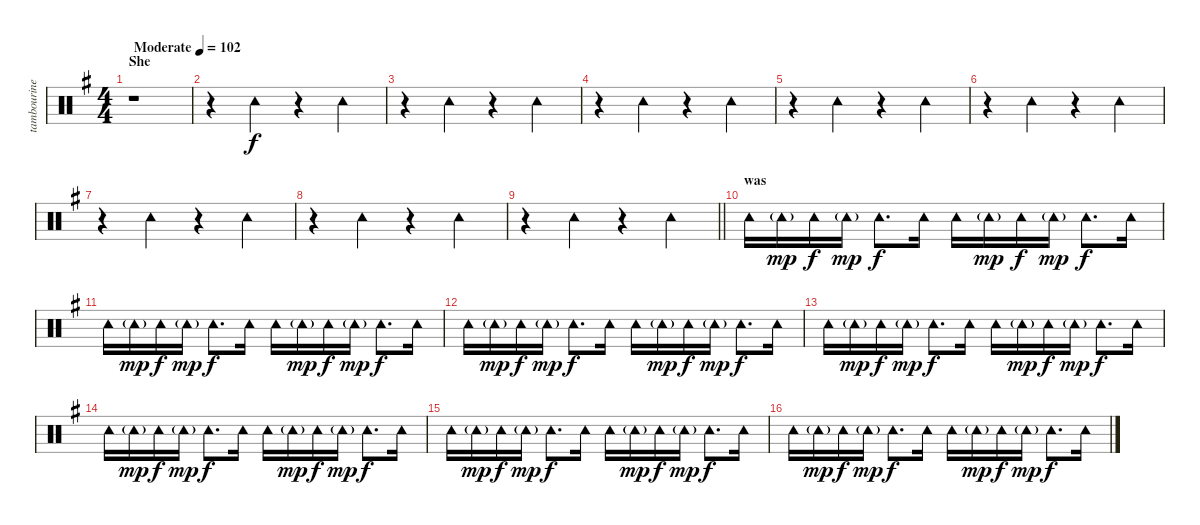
\track ("tambourine" "tambourine") {instrument percussion}
\staff {score}
\articulation defaults
\ts (4 4)
\section ("" "She")
\tempo (102 "Moderate")
\clef neutral
\ks eminor
r.1{dy f} |
r.4 "Tambourine (hit)".4 r.4 "Tambourine (hit)".4 |
r.4 "Tambourine (hit)".4 r.4 "Tambourine (hit)".4 |
r.4 "Tambourine (hit)".4 r.4 "Tambourine (hit)".4 |
r.4 "Tambourine (hit)".4 r.4 "Tambourine (hit)".4 |
r.4 "Tambourine (hit)".4 r.4 "Tambourine (hit)".4 |
r.4 "Tambourine (hit)".4 r.4 "Tambourine (hit)".4 |
r.4 "Tambourine (hit)".4 r.4 "Tambourine (hit)".4 |
\barLineRight lightlight
r.4 "Tambourine (hit)".4 r.4 "Tambourine (hit)".4 |
\section ("" "was")
"Tambourine (hit)".16 "Tambourine (hit)"{g}.16{dy mp} "Tambourine (hit)".16{dy f} "Tambourine (hit)"{g}.16{dy mp} "Tambourine (hit)".8{d dy f} "Tambourine (hit)".16 "Tambourine (hit)".16 "Tambourine (hit)"{g}.16{dy mp} "Tambourine (hit)".16{dy f} "Tambourine (hit)"{g}.16{dy mp} "Tambourine (hit)".8{d dy f} "Tambourine (hit)".16 |
"Tambourine (hit)".16 "Tambourine (hit)"{g}.16{dy mp} "Tambourine (hit)".16{dy f} "Tambourine (hit)"{g}.16{dy mp} "Tambourine (hit)".8{d dy f} "Tambourine (hit)".16 "Tambourine (hit)".16 "Tambourine (hit)"{g}.16{dy mp} "Tambourine (hit)".16{dy f} "Tambourine (hit)"{g}.16{dy mp} "Tambourine (hit)".8{d dy f} "Tambourine (hit)".16 |
"Tambourine (hit)".16 "Tambourine (hit)"{g}.16{dy mp} "Tambourine (hit)".16{dy f} "Tambourine (hit)"{g}.16{dy mp} "Tambourine (hit)".8{d dy f} "Tambourine (hit)".16 "Tambourine (hit)".16 "Tambourine (hit)"{g}.16{dy mp} "Tambourine (hit)".16{dy f} "Tambourine (hit)"{g}.16{dy mp} "Tambourine (hit)".8{d dy f} "Tambourine (hit)".16 |
"Tambourine (hit)".16 "Tambourine (hit)"{g}.16{dy mp} "Tambourine (hit)".16{dy f} "Tambourine (hit)"{g}.16{dy mp} "Tambourine (hit)".8{d dy f} "Tambourine (hit)".16 "Tambourine (hit)".16 "Tambourine (hit)"{g}.16{dy mp} "Tambourine (hit)".16{dy f} "Tambourine (hit)"{g}.16{dy mp} "Tambourine (hit)".8{d dy f} "Tambourine (hit)".16 |
"Tambourine (hit)".16 "Tambourine (hit)"{g}.16{dy mp} "Tambourine (hit)".16{dy f} "Tambourine (hit)"{g}.16{dy mp} "Tambourine (hit)".8{d dy f} "Tambourine (hit)".16 "Tambourine (hit)".16 "Tambourine (hit)"{g}.16{dy mp} "Tambourine (hit)".16{dy f} "Tambourine (hit)"{g}.16{dy mp} "Tambourine (hit)".8{d dy f} "Tambourine (hit)".16 |
"Tambourine (hit)".16 "Tambourine (hit)"{g}.16{dy mp} "Tambourine (hit)".16{dy f} "Tambourine (hit)"{g}.16{dy mp} "Tambourine (hit)".8{d dy f} "Tambourine (hit)".16 "Tambourine (hit)".16 "Tambourine (hit)"{g}.16{dy mp} "Tambourine (hit)".16{dy f} "Tambourine (hit)"{g}.16{dy mp} "Tambourine (hit)".8{d dy f} "Tambourine (hit)".16 |
"Tambourine (hit)".16 "Tambourine (hit)"{g}.16{dy mp} "Tambourine (hit)".16{dy f} "Tambourine (hit)"{g}.16{dy mp} "Tambourine (hit)".8{d dy f} "Tambourine (hit)".16 "Tambourine (hit)".16 "Tambourine (hit)"{g}.16{dy mp} "Tambourine (hit)".16{dy f} "Tambourine (hit)"{g}.16{dy mp} "Tambourine (hit)".8{d dy f} "Tambourine (hit)".16
